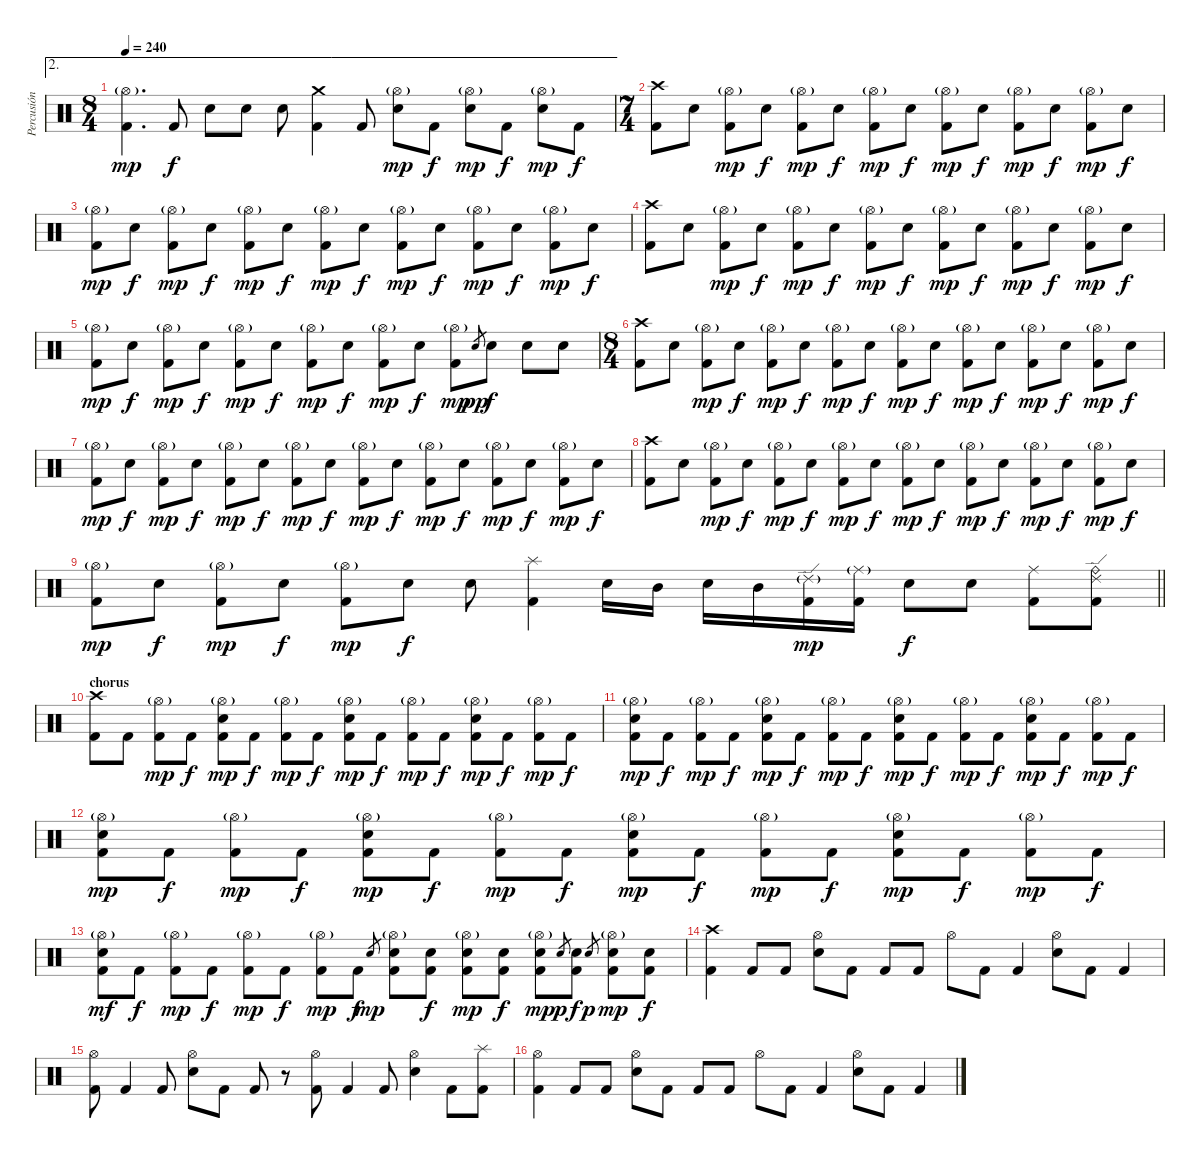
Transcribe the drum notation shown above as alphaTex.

\track ("Percusión" "Percusión") {instrument percussion}
\staff {score}
\articulation defaults
\ae 2
\ts (8 4)
\tempo 240
\clef neutral
\ks c
("Hi-Hat (open)"{g} "Kick (hit) 2").4{d dy mp} "Kick (hit) 2".8{dy f} "Electric Snare (hit)".8 "Electric Snare (hit)".8 "Electric Snare (hit)".8 ("Crash medium (hit)" "Kick (hit) 2").4 "Kick (hit) 2".8 ("Hi-Hat (open)"{g} "Electric Snare (hit)").8{dy mp} "Kick (hit) 2".8{dy f} ("Hi-Hat (open)"{g} "Electric Snare (hit)").8{dy mp} "Kick (hit) 2".8{dy f} ("Hi-Hat (open)"{g} "Electric Snare (hit)").8{dy mp} "Kick (hit) 2".8{dy f} |
\ts (7 4)
("Crash high (hit)" "Kick (hit) 2").8 "Electric Snare (hit)".8 ("Hi-Hat (open)"{g} "Kick (hit) 2").8{dy mp} "Electric Snare (hit)".8{dy f} ("Hi-Hat (open)"{g} "Kick (hit) 2").8{dy mp} "Electric Snare (hit)".8{dy f} ("Hi-Hat (open)"{g} "Kick (hit) 2").8{dy mp} "Electric Snare (hit)".8{dy f} ("Hi-Hat (open)"{g} "Kick (hit) 2").8{dy mp} "Electric Snare (hit)".8{dy f} ("Hi-Hat (open)"{g} "Kick (hit) 2").8{dy mp} "Electric Snare (hit)".8{dy f} ("Hi-Hat (open)"{g} "Kick (hit) 2").8{dy mp} "Electric Snare (hit)".8{dy f} |
("Hi-Hat (open)"{g} "Kick (hit) 2").8{dy mp} "Electric Snare (hit)".8{dy f} ("Hi-Hat (open)"{g} "Kick (hit) 2").8{dy mp} "Electric Snare (hit)".8{dy f} ("Hi-Hat (open)"{g} "Kick (hit) 2").8{dy mp} "Electric Snare (hit)".8{dy f} ("Hi-Hat (open)"{g} "Kick (hit) 2").8{dy mp} "Electric Snare (hit)".8{dy f} ("Hi-Hat (open)"{g} "Kick (hit) 2").8{dy mp} "Electric Snare (hit)".8{dy f} ("Hi-Hat (open)"{g} "Kick (hit) 2").8{dy mp} "Electric Snare (hit)".8{dy f} ("Hi-Hat (open)"{g} "Kick (hit) 2").8{dy mp} "Electric Snare (hit)".8{dy f} |
("Crash high (hit)" "Kick (hit) 2").8 "Electric Snare (hit)".8 ("Hi-Hat (open)"{g} "Kick (hit) 2").8{dy mp} "Electric Snare (hit)".8{dy f} ("Hi-Hat (open)"{g} "Kick (hit) 2").8{dy mp} "Electric Snare (hit)".8{dy f} ("Hi-Hat (open)"{g} "Kick (hit) 2").8{dy mp} "Electric Snare (hit)".8{dy f} ("Hi-Hat (open)"{g} "Kick (hit) 2").8{dy mp} "Electric Snare (hit)".8{dy f} ("Hi-Hat (open)"{g} "Kick (hit) 2").8{dy mp} "Electric Snare (hit)".8{dy f} ("Hi-Hat (open)"{g} "Kick (hit) 2").8{dy mp} "Electric Snare (hit)".8{dy f} |
("Hi-Hat (open)"{g} "Kick (hit) 2").8{dy mp} "Electric Snare (hit)".8{dy f} ("Hi-Hat (open)"{g} "Kick (hit) 2").8{dy mp} "Electric Snare (hit)".8{dy f} ("Hi-Hat (open)"{g} "Kick (hit) 2").8{dy mp} "Electric Snare (hit)".8{dy f} ("Hi-Hat (open)"{g} "Kick (hit) 2").8{dy mp} "Electric Snare (hit)".8{dy f} ("Hi-Hat (open)"{g} "Kick (hit) 2").8{dy mp} "Electric Snare (hit)".8{dy f} ("Hi-Hat (open)"{g} "Kick (hit) 2").8{dy mp} "Electric Snare (hit)".8{gr dy pp} "Electric Snare (hit)".8{dy f} "Electric Snare (hit)".8 "Electric Snare (hit)".8 |
\ts (8 4)
("Crash high (hit)" "Kick (hit) 2").8 "Electric Snare (hit)".8 ("Hi-Hat (open)"{g} "Kick (hit) 2").8{dy mp} "Electric Snare (hit)".8{dy f} ("Hi-Hat (open)"{g} "Kick (hit) 2").8{dy mp} "Electric Snare (hit)".8{dy f} ("Hi-Hat (open)"{g} "Kick (hit) 2").8{dy mp} "Electric Snare (hit)".8{dy f} ("Hi-Hat (open)"{g} "Kick (hit) 2").8{dy mp} "Electric Snare (hit)".8{dy f} ("Hi-Hat (open)"{g} "Kick (hit) 2").8{dy mp} "Electric Snare (hit)".8{dy f} ("Hi-Hat (open)"{g} "Kick (hit) 2").8{dy mp} "Electric Snare (hit)".8{dy f} ("Hi-Hat (open)"{g} "Kick (hit) 2").8{dy mp} "Electric Snare (hit)".8{dy f} |
("Hi-Hat (open)"{g} "Kick (hit) 2").8{dy mp} "Electric Snare (hit)".8{dy f} ("Hi-Hat (open)"{g} "Kick (hit) 2").8{dy mp} "Electric Snare (hit)".8{dy f} ("Hi-Hat (open)"{g} "Kick (hit) 2").8{dy mp} "Electric Snare (hit)".8{dy f} ("Hi-Hat (open)"{g} "Kick (hit) 2").8{dy mp} "Electric Snare (hit)".8{dy f} ("Hi-Hat (open)"{g} "Kick (hit) 2").8{dy mp} "Electric Snare (hit)".8{dy f} ("Hi-Hat (open)"{g} "Kick (hit) 2").8{dy mp} "Electric Snare (hit)".8{dy f} ("Hi-Hat (open)"{g} "Kick (hit) 2").8{dy mp} "Electric Snare (hit)".8{dy f} ("Hi-Hat (open)"{g} "Kick (hit) 2").8{dy mp} "Electric Snare (hit)".8{dy f} |
("Crash high (hit)" "Kick (hit) 2").8 "Electric Snare (hit)".8 ("Hi-Hat (open)"{g} "Kick (hit) 2").8{dy mp} "Electric Snare (hit)".8{dy f} ("Hi-Hat (open)"{g} "Kick (hit) 2").8{dy mp} "Electric Snare (hit)".8{dy f} ("Hi-Hat (open)"{g} "Kick (hit) 2").8{dy mp} "Electric Snare (hit)".8{dy f} ("Hi-Hat (open)"{g} "Kick (hit) 2").8{dy mp} "Electric Snare (hit)".8{dy f} ("Hi-Hat (open)"{g} "Kick (hit) 2").8{dy mp} "Electric Snare (hit)".8{dy f} ("Hi-Hat (open)"{g} "Kick (hit) 2").8{dy mp} "Electric Snare (hit)".8{dy f} ("Hi-Hat (open)"{g} "Kick (hit) 2").8{dy mp} "Electric Snare (hit)".8{dy f} |
\barLineRight lightlight
("Hi-Hat (open)"{g} "Kick (hit) 2").8{dy mp} "Electric Snare (hit)".8{dy f} ("Hi-Hat (open)"{g} "Kick (hit) 2").8{dy mp} "Electric Snare (hit)".8{dy f} ("Hi-Hat (open)"{g} "Kick (hit) 2").8{dy mp} "Electric Snare (hit)".8{dy f} "Electric Snare (hit)".8 ("Splash (hit)" "Kick (hit) 2").4 "Electric Snare (hit)".16 "Mid Tom (hit)".16 "Electric Snare (hit)".16 "Mid Tom (hit)".16 ("Ride (edge) 2"{g} "Kick (hit) 2").16{dy mp} ("Ride (middle)"{g} "Kick (hit) 2").16 "Electric Snare (hit)".8{dy f} "Electric Snare (hit)".8 ("Ride (middle)" "Kick (hit) 2").8 ("Ride (bell)" "Ride (edge) 2" "Kick (hit) 2").8 |
\section ("" "chorus")
("Crash high (hit)" "Kick (hit) 2").8 "Kick (hit) 2".8 ("Hi-Hat (open)"{g} "Kick (hit) 2").8{dy mp} "Kick (hit) 2".8{dy f} ("Hi-Hat (open)"{g} "Electric Snare (hit)" "Kick (hit) 2").8{dy mp} "Kick (hit) 2".8{dy f} ("Hi-Hat (open)"{g} "Kick (hit) 2").8{dy mp} "Kick (hit) 2".8{dy f} ("Hi-Hat (open)"{g} "Electric Snare (hit)" "Kick (hit) 2").8{dy mp} "Kick (hit) 2".8{dy f} ("Hi-Hat (open)"{g} "Kick (hit) 2").8{dy mp} "Kick (hit) 2".8{dy f} ("Hi-Hat (open)"{g} "Electric Snare (hit)" "Kick (hit) 2").8{dy mp} "Kick (hit) 2".8{dy f} ("Hi-Hat (open)"{g} "Kick (hit) 2").8{dy mp} "Kick (hit) 2".8{dy f} |
("Hi-Hat (open)"{g} "Electric Snare (hit)" "Kick (hit) 2").8{dy mp} "Kick (hit) 2".8{dy f} ("Hi-Hat (open)"{g} "Kick (hit) 2").8{dy mp} "Kick (hit) 2".8{dy f} ("Hi-Hat (open)"{g} "Electric Snare (hit)" "Kick (hit) 2").8{dy mp} "Kick (hit) 2".8{dy f} ("Hi-Hat (open)"{g} "Kick (hit) 2").8{dy mp} "Kick (hit) 2".8{dy f} ("Hi-Hat (open)"{g} "Electric Snare (hit)" "Kick (hit) 2").8{dy mp} "Kick (hit) 2".8{dy f} ("Hi-Hat (open)"{g} "Kick (hit) 2").8{dy mp} "Kick (hit) 2".8{dy f} ("Hi-Hat (open)"{g} "Electric Snare (hit)" "Kick (hit) 2").8{dy mp} "Kick (hit) 2".8{dy f} ("Hi-Hat (open)"{g} "Kick (hit) 2").8{dy mp} "Kick (hit) 2".8{dy f} |
("Hi-Hat (open)"{g} "Electric Snare (hit)" "Kick (hit) 2").8{dy mp} "Kick (hit) 2".8{dy f} ("Hi-Hat (open)"{g} "Kick (hit) 2").8{dy mp} "Kick (hit) 2".8{dy f} ("Hi-Hat (open)"{g} "Electric Snare (hit)" "Kick (hit) 2").8{dy mp} "Kick (hit) 2".8{dy f} ("Hi-Hat (open)"{g} "Kick (hit) 2").8{dy mp} "Kick (hit) 2".8{dy f} ("Hi-Hat (open)"{g} "Electric Snare (hit)" "Kick (hit) 2").8{dy mp} "Kick (hit) 2".8{dy f} ("Hi-Hat (open)"{g} "Kick (hit) 2").8{dy mp} "Kick (hit) 2".8{dy f} ("Hi-Hat (open)"{g} "Electric Snare (hit)" "Kick (hit) 2").8{dy mp} "Kick (hit) 2".8{dy f} ("Hi-Hat (open)"{g} "Kick (hit) 2").8{dy mp} "Kick (hit) 2".8{dy f} |
("Hi-Hat (open)"{g} "Electric Snare (hit)" "Kick (hit) 2").8{dy mf} "Kick (hit) 2".8{dy f} ("Hi-Hat (open)"{g} "Kick (hit) 2").8{dy mp} "Kick (hit) 2".8{dy f} ("Hi-Hat (open)"{g} "Kick (hit) 2").8{dy mp} "Kick (hit) 2".8{dy f} ("Hi-Hat (open)"{g} "Kick (hit) 2").8{dy mp} "Kick (hit) 2".8{dy f} "Electric Snare (hit)".8{gr dy mp} ("Hi-Hat (open)"{g} "Electric Snare (hit)" "Kick (hit) 2").8 ("Electric Snare (hit)" "Kick (hit) 2").8{dy f} ("Hi-Hat (open)"{g} "Electric Snare (hit)" "Kick (hit) 2").8{dy mp} ("Electric Snare (hit)" "Kick (hit) 2").8{dy f} ("Hi-Hat (open)"{g} "Electric Snare (hit)" "Kick (hit) 2").8{dy mp} "Electric Snare (hit)".8{gr dy p} ("Electric Snare (hit)" "Kick (hit) 2").8{dy f} "Electric Snare (hit)".8{gr dy p} ("Hi-Hat (open)"{g} "Electric Snare (hit)" "Kick (hit) 2").8{dy mp} ("Electric Snare (hit)" "Kick (hit) 2").8{dy f} |
("Crash high (hit)" "Kick (hit) 2").4 "Kick (hit) 2".8 "Kick (hit) 2".8 ("Hi-Hat (open)" "Electric Snare (hit)").8 "Kick (hit) 2".8 "Kick (hit) 2".8 "Kick (hit) 2".8 "Hi-Hat (open)".8 "Kick (hit) 2".8 "Kick (hit) 2".4 ("Hi-Hat (open)" "Electric Snare (hit)").8 "Kick (hit) 2".8 "Kick (hit) 2".4 |
("Hi-Hat (open)" "Kick (hit) 2").8 "Kick (hit) 2".4 "Kick (hit) 2".8 ("Hi-Hat (open)" "Electric Snare (hit)").8 "Kick (hit) 2".8 "Kick (hit) 2".8 r.8 ("Hi-Hat (open)" "Kick (hit) 2").8 "Kick (hit) 2".4 "Kick (hit) 2".8 ("Hi-Hat (open)" "Electric Snare (hit)").4 "Kick (hit) 2".8 ("Splash (hit)" "Kick (hit) 2").8 |
("Hi-Hat (open)" "Kick (hit) 2").4 "Kick (hit) 2".8 "Kick (hit) 2".8 ("Hi-Hat (open)" "Electric Snare (hit)").8 "Kick (hit) 2".8 "Kick (hit) 2".8 "Kick (hit) 2".8 "Hi-Hat (open)".8 "Kick (hit) 2".8 "Kick (hit) 2".4 ("Hi-Hat (open)" "Electric Snare (hit)").8 "Kick (hit) 2".8 "Kick (hit) 2".4
